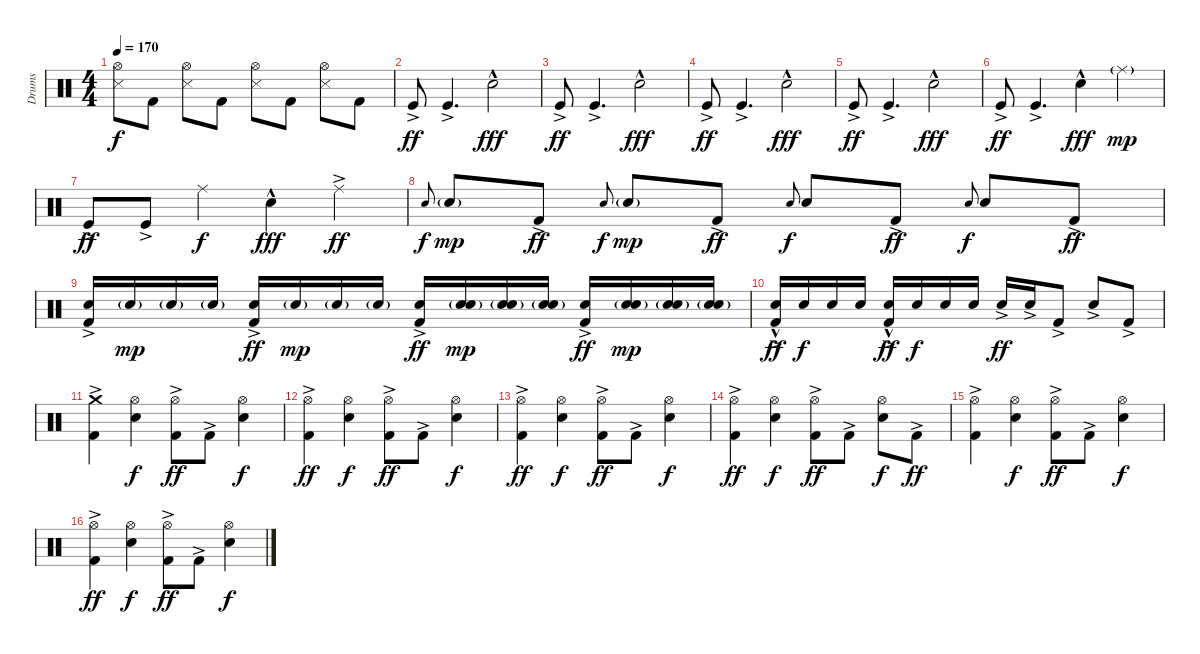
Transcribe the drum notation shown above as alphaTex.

\track ("Drums" "Drums") {instrument percussion}
\staff {score}
\articulation defaults
\ts (4 4)
\tempo 170
\clef neutral
\ks c
("Snare (side stick) 3" "Hi-Hat (open)").8{dy f} "Kick (hit) 2".8 ("Snare (side stick) 3" "Hi-Hat (open)").8 "Kick (hit) 2".8 ("Snare (side stick) 3" "Hi-Hat (open)").8 "Kick (hit) 2".8 ("Snare (side stick) 3" "Hi-Hat (open)").8 "Kick (hit) 2".8 |
"Kick (hit)"{ac}.8{dy ff} "Kick (hit)"{ac}.4{d} "Snare (hit) 2"{hac}.2{dy fff} |
"Kick (hit)"{ac}.8{dy ff} "Kick (hit)"{ac}.4{d} "Snare (hit) 2"{hac}.2{dy fff} |
"Kick (hit)"{ac}.8{dy ff} "Kick (hit)"{ac}.4{d} "Snare (hit) 2"{hac}.2{dy fff} |
"Kick (hit)"{ac}.8{dy ff} "Kick (hit)"{ac}.4{d} "Snare (hit) 2"{hac}.2{dy fff} |
"Kick (hit)"{ac}.8{dy ff} "Kick (hit)"{ac}.4{d} "Snare (hit) 2"{hac}.4{dy fff} "Ride (middle)"{g}.4{dy mp} |
"Kick (hit)"{ac}.8{dy ff} "Kick (hit)"{ac}.8 "Ride (middle)".4{dy f} "Snare (hit) 2"{hac}.4{dy fff} "Ride (middle)"{ac}.4{dy ff} |
"Electric Snare (hit)".8{gr onbeat dy f} "Electric Snare (hit)"{g}.8{dy mp} "Kick (hit) 2"{ac}.8{dy ff} "Electric Snare (hit)".8{gr onbeat dy f} "Electric Snare (hit)"{g}.8{dy mp} "Kick (hit) 2"{ac}.8{dy ff} "Electric Snare (hit)".8{gr onbeat dy f} "Electric Snare (hit)".8 "Kick (hit) 2"{ac}.8{dy ff} "Electric Snare (hit)".8{gr onbeat dy f} "Electric Snare (hit)".8 "Kick (hit) 2"{ac}.8{dy ff} |
("Snare (hit) 2" "Kick (hit) 2"{ac}).16 "Snare (hit) 2"{g}.16{dy mp} "Snare (hit) 2"{g}.16 "Snare (hit) 2"{g}.16 ("Snare (hit) 2" "Kick (hit) 2"{ac}).16{dy ff} "Snare (hit) 2"{g}.16{dy mp} "Snare (hit) 2"{g}.16 "Snare (hit) 2"{g}.16 ("Snare (hit) 2"{ac} "Kick (hit) 2"{ac}).16{dy ff} ("Snare (hit) 2"{g} "Snare (hit) 2"{g}).16{dy mp} ("Snare (hit) 2"{g} "Snare (hit) 2"{g}).16 ("Snare (hit) 2"{g} "Snare (hit) 2"{g}).16 ("Snare (hit) 2"{ac} "Kick (hit) 2"{ac}).16{dy ff} ("Snare (hit) 2"{g} "Snare (hit) 2"{g}).16{dy mp} ("Snare (hit) 2"{g} "Snare (hit) 2"{g}).16 ("Snare (hit) 2"{g} "Snare (hit) 2"{g}).16 |
("Snare (hit) 2"{hac} "Kick (hit) 2"{ac}).16{dy ff} "Snare (hit) 2".16{dy f} "Snare (hit) 2".16 "Snare (hit) 2".16 ("Snare (hit) 2"{hac} "Kick (hit) 2"{ac}).16{dy ff} "Snare (hit) 2".16{dy f} "Snare (hit) 2".16 "Snare (hit) 2".16 "Electric Snare (hit)"{ac}.16{dy ff} "Electric Snare (hit)"{ac}.16 "Kick (hit) 2"{ac}.8 "Electric Snare (hit)"{ac}.8 "Kick (hit) 2"{ac}.8 |
("Crash medium (hit)" "Kick (hit) 2"{ac}).4 ("Hi-Hat (open)" "Electric Snare (hit)").4{dy f} ("Hi-Hat (open)" "Kick (hit) 2"{ac}).8{dy ff} "Kick (hit) 2"{ac}.8 ("Hi-Hat (open)" "Electric Snare (hit)").4{dy f} |
("Hi-Hat (open)" "Kick (hit) 2"{ac}).4{dy ff} ("Hi-Hat (open)" "Electric Snare (hit)").4{dy f} ("Hi-Hat (open)" "Kick (hit) 2"{ac}).8{dy ff} "Kick (hit) 2"{ac}.8 ("Hi-Hat (open)" "Electric Snare (hit)").4{dy f} |
("Hi-Hat (open)" "Kick (hit) 2"{ac}).4{dy ff} ("Hi-Hat (open)" "Electric Snare (hit)").4{dy f} ("Hi-Hat (open)" "Kick (hit) 2"{ac}).8{dy ff} "Kick (hit) 2"{ac}.8 ("Hi-Hat (open)" "Electric Snare (hit)").4{dy f} |
("Hi-Hat (open)" "Kick (hit) 2"{ac}).4{dy ff} ("Hi-Hat (open)" "Electric Snare (hit)").4{dy f} ("Hi-Hat (open)" "Kick (hit) 2"{ac}).8{dy ff} "Kick (hit) 2"{ac}.8 ("Hi-Hat (open)" "Electric Snare (hit)").8{dy f} "Kick (hit) 2"{ac}.8{dy ff} |
("Hi-Hat (open)" "Kick (hit) 2"{ac}).4 ("Hi-Hat (open)" "Electric Snare (hit)").4{dy f} ("Hi-Hat (open)" "Kick (hit) 2"{ac}).8{dy ff} "Kick (hit) 2"{ac}.8 ("Hi-Hat (open)" "Electric Snare (hit)").4{dy f} |
("Hi-Hat (open)" "Kick (hit) 2"{ac}).4{dy ff} ("Hi-Hat (open)" "Electric Snare (hit)").4{dy f} ("Hi-Hat (open)" "Kick (hit) 2"{ac}).8{dy ff} "Kick (hit) 2"{ac}.8 ("Hi-Hat (open)" "Electric Snare (hit)").4{dy f}
